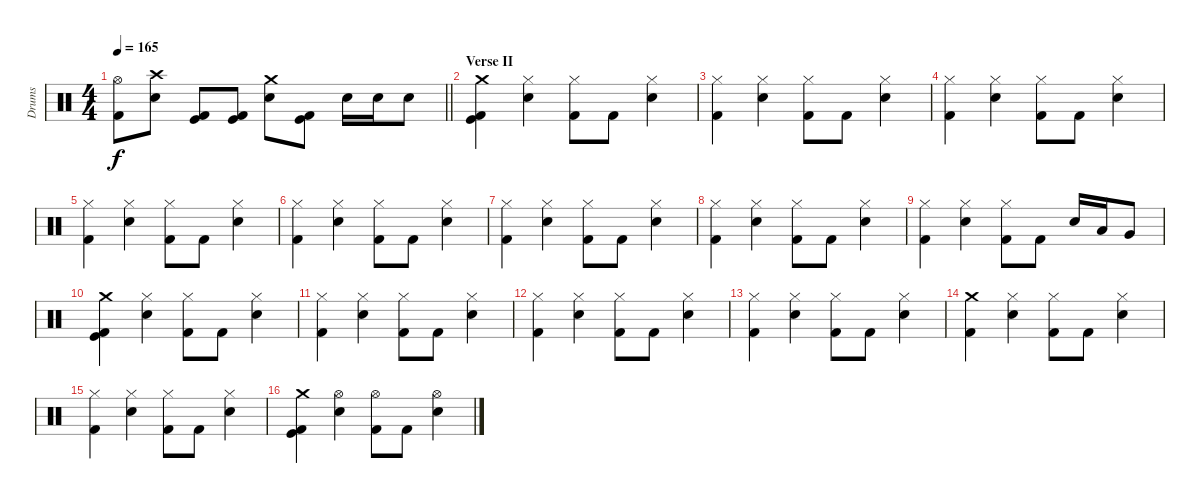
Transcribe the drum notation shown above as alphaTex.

\track ("Drums" "Drums") {instrument percussion}
\staff {score}
\articulation defaults
\ts (4 4)
\tempo 165
\clef neutral
\barLineRight lightlight
\ks c
("Hi-Hat (open)" "Kick (hit) 2").8{dy f} ("Electric Snare (hit)" "Crash high (hit)").8 ("Kick (hit) 2" "Kick (hit)").8 ("Kick (hit) 2" "Kick (hit)").8 ("Electric Snare (hit)" "Crash medium (hit)").8 ("Kick (hit) 2" "Kick (hit)").8 "Electric Snare (hit)".16 "Electric Snare (hit)".16 "Electric Snare (hit)".8 |
\section ("" "Verse II")
("Kick (hit)" "Kick (hit) 2" "Crash medium (hit)").4 ("Hi-Hat (closed)" "Electric Snare (hit)").4 ("Hi-Hat (closed)" "Kick (hit) 2").8 "Kick (hit) 2".8 ("Hi-Hat (closed)" "Electric Snare (hit)").4 |
("Hi-Hat (closed)" "Kick (hit) 2").4 ("Hi-Hat (closed)" "Electric Snare (hit)").4 ("Hi-Hat (closed)" "Kick (hit) 2").8 "Kick (hit) 2".8 ("Hi-Hat (closed)" "Electric Snare (hit)").4 |
("Hi-Hat (closed)" "Kick (hit) 2").4 ("Hi-Hat (closed)" "Electric Snare (hit)").4 ("Hi-Hat (closed)" "Kick (hit) 2").8 "Kick (hit) 2".8 ("Hi-Hat (closed)" "Electric Snare (hit)").4 |
("Hi-Hat (closed)" "Kick (hit) 2").4 ("Hi-Hat (closed)" "Electric Snare (hit)").4 ("Hi-Hat (closed)" "Kick (hit) 2").8 "Kick (hit) 2".8 ("Hi-Hat (closed)" "Electric Snare (hit)").4 |
("Hi-Hat (closed)" "Kick (hit) 2").4 ("Hi-Hat (closed)" "Electric Snare (hit)").4 ("Hi-Hat (closed)" "Kick (hit) 2").8 "Kick (hit) 2".8 ("Hi-Hat (closed)" "Electric Snare (hit)").4 |
("Hi-Hat (closed)" "Kick (hit) 2").4 ("Hi-Hat (closed)" "Electric Snare (hit)").4 ("Hi-Hat (closed)" "Kick (hit) 2").8 "Kick (hit) 2".8 ("Hi-Hat (closed)" "Electric Snare (hit)").4 |
("Hi-Hat (closed)" "Kick (hit) 2").4 ("Hi-Hat (closed)" "Electric Snare (hit)").4 ("Hi-Hat (closed)" "Kick (hit) 2").8 "Kick (hit) 2".8 ("Hi-Hat (closed)" "Electric Snare (hit)").4 |
("Hi-Hat (closed)" "Kick (hit) 2").4 ("Hi-Hat (closed)" "Electric Snare (hit)").4 ("Hi-Hat (closed)" "Kick (hit) 2").8 "Kick (hit) 2".8 "Electric Snare (hit)".16 "Low Tom (hit)".16 "Very Low Tom (hit)".8 |
("Kick (hit)" "Kick (hit) 2" "Crash medium (hit)").4 ("Hi-Hat (closed)" "Electric Snare (hit)").4 ("Hi-Hat (closed)" "Kick (hit) 2").8 "Kick (hit) 2".8 ("Hi-Hat (closed)" "Electric Snare (hit)").4 |
("Hi-Hat (closed)" "Kick (hit) 2").4 ("Hi-Hat (closed)" "Electric Snare (hit)").4 ("Hi-Hat (closed)" "Kick (hit) 2").8 "Kick (hit) 2".8 ("Hi-Hat (closed)" "Electric Snare (hit)").4 |
("Hi-Hat (closed)" "Kick (hit) 2").4 ("Hi-Hat (closed)" "Electric Snare (hit)").4 ("Hi-Hat (closed)" "Kick (hit) 2").8 "Kick (hit) 2".8 ("Hi-Hat (closed)" "Electric Snare (hit)").4 |
("Hi-Hat (closed)" "Kick (hit) 2").4 ("Hi-Hat (closed)" "Electric Snare (hit)").4 ("Hi-Hat (closed)" "Kick (hit) 2").8 "Kick (hit) 2".8 ("Hi-Hat (closed)" "Electric Snare (hit)").4 |
("Crash medium (hit)" "Kick (hit) 2").4 ("Hi-Hat (closed)" "Electric Snare (hit)").4 ("Hi-Hat (closed)" "Kick (hit) 2").8 "Kick (hit) 2".8 ("Hi-Hat (closed)" "Electric Snare (hit)").4 |
("Hi-Hat (closed)" "Kick (hit) 2").4 ("Hi-Hat (closed)" "Electric Snare (hit)").4 ("Hi-Hat (closed)" "Kick (hit) 2").8 "Kick (hit) 2".8 ("Hi-Hat (closed)" "Electric Snare (hit)").4 |
("Crash medium (hit)" "Kick (hit) 2" "Kick (hit)").4 ("Hi-Hat (open)" "Electric Snare (hit)").4 ("Hi-Hat (open)" "Kick (hit) 2").8 "Kick (hit) 2".8 ("Hi-Hat (open)" "Electric Snare (hit)").4
